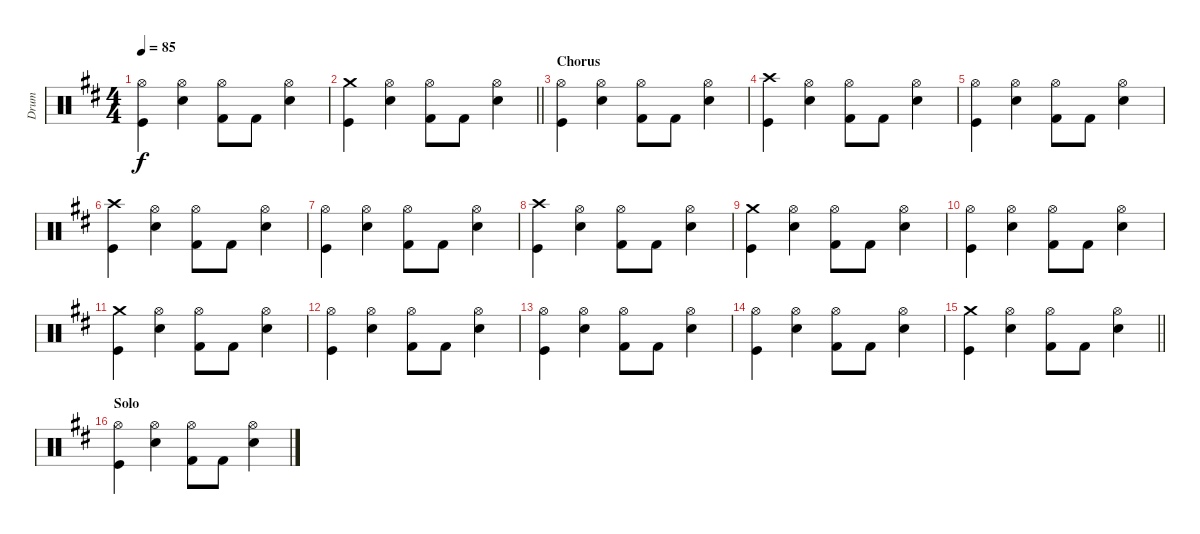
\track ("Drum" "Drum") {instrument percussion}
\staff {score}
\articulation defaults
\ts (4 4)
\tempo 85
\clef neutral
\ks d
("Kick (hit)" "Hi-Hat (open)").4{dy f} ("Electric Snare (hit)" "Hi-Hat (open)").4 ("Kick (hit) 2" "Hi-Hat (open)").8 "Kick (hit) 2".8 ("Snare (hit) 2" "Hi-Hat (open)").4 |
\barLineRight lightlight
("Kick (hit)" "Crash medium (hit)").4 ("Electric Snare (hit)" "Hi-Hat (open)").4 ("Kick (hit) 2" "Hi-Hat (open)").8 "Kick (hit) 2".8 ("Snare (hit) 2" "Hi-Hat (open)").4 |
\section ("" "Chorus")
("Kick (hit)" "Hi-Hat (open)").4 ("Electric Snare (hit)" "Hi-Hat (open)").4 ("Kick (hit) 2" "Hi-Hat (open)").8 "Kick (hit) 2".8 ("Snare (hit) 2" "Hi-Hat (open)").4 |
("Kick (hit)" "Crash high (hit)").4 ("Electric Snare (hit)" "Hi-Hat (open)").4 ("Kick (hit) 2" "Hi-Hat (open)").8 "Kick (hit) 2".8 ("Snare (hit) 2" "Hi-Hat (open)").4 |
("Kick (hit)" "Hi-Hat (open)").4 ("Electric Snare (hit)" "Hi-Hat (open)").4 ("Kick (hit) 2" "Hi-Hat (open)").8 "Kick (hit) 2".8 ("Snare (hit) 2" "Hi-Hat (open)").4 |
("Kick (hit)" "Crash high (hit)").4 ("Electric Snare (hit)" "Hi-Hat (open)").4 ("Kick (hit) 2" "Hi-Hat (open)").8 "Kick (hit) 2".8 ("Snare (hit) 2" "Hi-Hat (open)").4 |
("Kick (hit)" "Hi-Hat (open)").4 ("Electric Snare (hit)" "Hi-Hat (open)").4 ("Kick (hit) 2" "Hi-Hat (open)").8 "Kick (hit) 2".8 ("Snare (hit) 2" "Hi-Hat (open)").4 |
("Kick (hit)" "Crash high (hit)").4 ("Electric Snare (hit)" "Hi-Hat (open)").4 ("Kick (hit) 2" "Hi-Hat (open)").8 "Kick (hit) 2".8 ("Snare (hit) 2" "Hi-Hat (open)").4 |
("Kick (hit)" "Crash medium (hit)").4 ("Electric Snare (hit)" "Hi-Hat (open)").4 ("Kick (hit) 2" "Hi-Hat (open)").8 "Kick (hit) 2".8 ("Snare (hit) 2" "Hi-Hat (open)").4 |
("Kick (hit)" "Hi-Hat (open)").4 ("Electric Snare (hit)" "Hi-Hat (open)").4 ("Kick (hit) 2" "Hi-Hat (open)").8 "Kick (hit) 2".8 ("Snare (hit) 2" "Hi-Hat (open)").4 |
("Kick (hit)" "Crash medium (hit)").4 ("Electric Snare (hit)" "Hi-Hat (open)").4 ("Kick (hit) 2" "Hi-Hat (open)").8 "Kick (hit) 2".8 ("Snare (hit) 2" "Hi-Hat (open)").4 |
("Kick (hit)" "Hi-Hat (open)").4 ("Electric Snare (hit)" "Hi-Hat (open)").4 ("Kick (hit) 2" "Hi-Hat (open)").8 "Kick (hit) 2".8 ("Snare (hit) 2" "Hi-Hat (open)").4 |
("Kick (hit)" "Hi-Hat (open)").4 ("Electric Snare (hit)" "Hi-Hat (open)").4 ("Kick (hit) 2" "Hi-Hat (open)").8 "Kick (hit) 2".8 ("Snare (hit) 2" "Hi-Hat (open)").4 |
("Kick (hit)" "Hi-Hat (open)").4 ("Electric Snare (hit)" "Hi-Hat (open)").4 ("Kick (hit) 2" "Hi-Hat (open)").8 "Kick (hit) 2".8 ("Snare (hit) 2" "Hi-Hat (open)").4 |
\barLineRight lightlight
("Kick (hit)" "Crash medium (hit)").4 ("Electric Snare (hit)" "Hi-Hat (open)").4 ("Kick (hit) 2" "Hi-Hat (open)").8 "Kick (hit) 2".8 ("Snare (hit) 2" "Hi-Hat (open)").4 |
\section ("" "Solo")
("Kick (hit)" "Hi-Hat (open)").4 ("Electric Snare (hit)" "Hi-Hat (open)").4 ("Kick (hit) 2" "Hi-Hat (open)").8 "Kick (hit) 2".8 ("Snare (hit) 2" "Hi-Hat (open)").4
